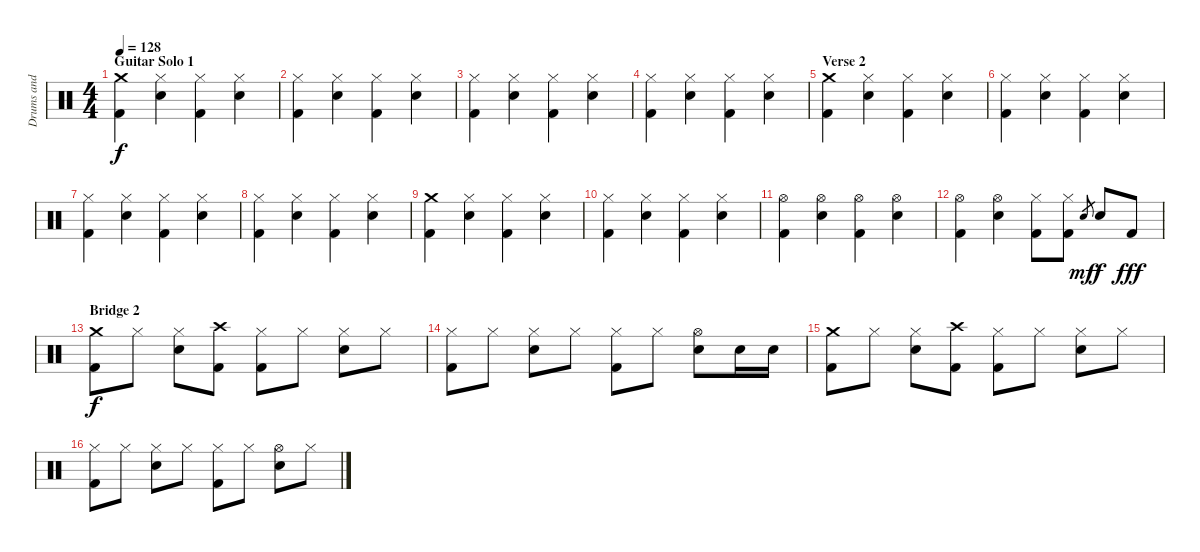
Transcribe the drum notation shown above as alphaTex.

\track ("Drums and Percussion" "Drums and ") {instrument percussion}
\staff {score}
\articulation defaults
\ts (4 4)
\section ("" "Guitar Solo 1")
\tempo 128
\clef neutral
\ks c
("Crash medium (hit)" "Kick (hit) 2").4{dy f} ("Hi-Hat (closed)" "Snare (hit) 2").4 ("Hi-Hat (closed)" "Kick (hit) 2").4 ("Hi-Hat (closed)" "Snare (hit) 2").4 |
("Hi-Hat (closed)" "Kick (hit) 2").4 ("Hi-Hat (closed)" "Snare (hit) 2").4 ("Hi-Hat (closed)" "Kick (hit) 2").4 ("Hi-Hat (closed)" "Snare (hit) 2").4 |
("Hi-Hat (closed)" "Kick (hit) 2").4 ("Hi-Hat (closed)" "Snare (hit) 2").4 ("Hi-Hat (closed)" "Kick (hit) 2").4 ("Hi-Hat (closed)" "Snare (hit) 2").4 |
("Hi-Hat (closed)" "Kick (hit) 2").4 ("Hi-Hat (closed)" "Snare (hit) 2").4 ("Hi-Hat (closed)" "Kick (hit) 2").4 ("Hi-Hat (closed)" "Snare (hit) 2").4 |
\section ("" "Verse 2")
("Crash medium (hit)" "Kick (hit) 2").4 ("Hi-Hat (closed)" "Snare (hit) 2").4 ("Hi-Hat (closed)" "Kick (hit) 2").4 ("Hi-Hat (closed)" "Snare (hit) 2").4 |
("Hi-Hat (closed)" "Kick (hit) 2").4 ("Hi-Hat (closed)" "Snare (hit) 2").4 ("Hi-Hat (closed)" "Kick (hit) 2").4 ("Hi-Hat (closed)" "Snare (hit) 2").4 |
("Hi-Hat (closed)" "Kick (hit) 2").4 ("Hi-Hat (closed)" "Snare (hit) 2").4 ("Hi-Hat (closed)" "Kick (hit) 2").4 ("Hi-Hat (closed)" "Snare (hit) 2").4 |
("Hi-Hat (closed)" "Kick (hit) 2").4 ("Hi-Hat (closed)" "Snare (hit) 2").4 ("Hi-Hat (closed)" "Kick (hit) 2").4 ("Hi-Hat (closed)" "Snare (hit) 2").4 |
("Crash medium (hit)" "Kick (hit) 2").4 ("Hi-Hat (closed)" "Snare (hit) 2").4 ("Hi-Hat (closed)" "Kick (hit) 2").4 ("Hi-Hat (closed)" "Snare (hit) 2").4 |
("Hi-Hat (closed)" "Kick (hit) 2").4 ("Hi-Hat (closed)" "Snare (hit) 2").4 ("Hi-Hat (closed)" "Kick (hit) 2").4 ("Hi-Hat (closed)" "Snare (hit) 2").4 |
("Hi-Hat (open)" "Kick (hit) 2").4 ("Hi-Hat (open)" "Snare (hit) 2").4 ("Hi-Hat (open)" "Kick (hit) 2").4 ("Hi-Hat (open)" "Snare (hit) 2").4 |
("Hi-Hat (open)" "Kick (hit) 2").4 ("Hi-Hat (open)" "Snare (hit) 2").4 ("Hi-Hat (closed)" "Kick (hit) 2").8 ("Hi-Hat (closed)" "Kick (hit) 2").8 "Snare (hit)".8{gr dy mf} "Snare (hit) 2".8{dy f} "Kick (hit) 2".8{dy fff} |
\section ("" "Bridge 2")
("Crash medium (hit)" "Kick (hit) 2").8{dy f} "Hi-Hat (closed)".8 ("Hi-Hat (closed)" "Snare (hit) 2").8 ("Crash high (hit)" "Kick (hit) 2").8 ("Hi-Hat (closed)" "Kick (hit) 2").8 "Hi-Hat (closed)".8 ("Hi-Hat (closed)" "Snare (hit) 2").8 "Hi-Hat (closed)".8 |
("Hi-Hat (closed)" "Kick (hit) 2").8 "Hi-Hat (closed)".8 ("Hi-Hat (closed)" "Snare (hit) 2").8 "Hi-Hat (closed)".8 ("Hi-Hat (closed)" "Kick (hit) 2").8 "Hi-Hat (closed)".8 ("Hi-Hat (open)" "Snare (hit) 2").8 "Snare (hit) 2".16 "Snare (hit) 2".16 |
("Crash medium (hit)" "Kick (hit) 2").8 "Hi-Hat (closed)".8 ("Hi-Hat (closed)" "Snare (hit) 2").8 ("Crash high (hit)" "Kick (hit) 2").8 ("Hi-Hat (closed)" "Kick (hit) 2").8 "Hi-Hat (closed)".8 ("Hi-Hat (closed)" "Snare (hit) 2").8 "Hi-Hat (closed)".8 |
("Hi-Hat (closed)" "Kick (hit) 2").8 "Hi-Hat (closed)".8 ("Hi-Hat (closed)" "Snare (hit) 2").8 "Hi-Hat (closed)".8 ("Hi-Hat (closed)" "Kick (hit) 2").8 "Hi-Hat (closed)".8 ("Hi-Hat (open)" "Snare (hit) 2").8 "Hi-Hat (closed)".8
